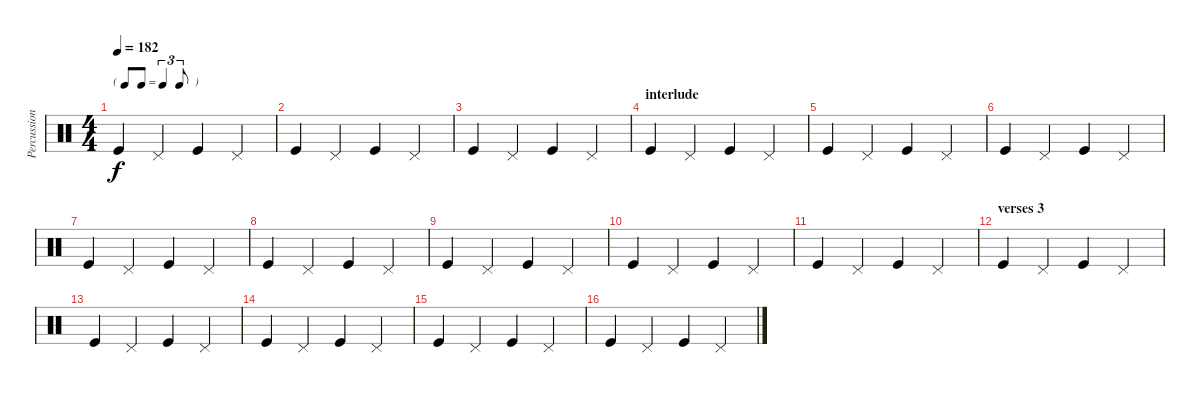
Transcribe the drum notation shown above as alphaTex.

\track ("Percussions" "Percussion") {instrument percussion}
\staff {score}
\articulation defaults
\ts (4 4)
\tf triplet8th
\tempo 182
\clef neutral
\ks c "Kick (hit)".4{dy f} "Pedal Hi-Hat (hit)".4 "Kick (hit)".4 "Pedal Hi-Hat (hit)".4
|
"Kick (hit)".4 "Pedal Hi-Hat (hit)".4 "Kick (hit)".4 "Pedal Hi-Hat (hit)".4 |
"Kick (hit)".4 "Pedal Hi-Hat (hit)".4 "Kick (hit)".4 "Pedal Hi-Hat (hit)".4 |
\section ("" "interlude")
"Kick (hit)".4 "Pedal Hi-Hat (hit)".4 "Kick (hit)".4 "Pedal Hi-Hat (hit)".4 |
"Kick (hit)".4 "Pedal Hi-Hat (hit)".4 "Kick (hit)".4 "Pedal Hi-Hat (hit)".4 |
"Kick (hit)".4 "Pedal Hi-Hat (hit)".4 "Kick (hit)".4 "Pedal Hi-Hat (hit)".4 |
"Kick (hit)".4 "Pedal Hi-Hat (hit)".4 "Kick (hit)".4 "Pedal Hi-Hat (hit)".4 |
"Kick (hit)".4 "Pedal Hi-Hat (hit)".4 "Kick (hit)".4 "Pedal Hi-Hat (hit)".4 |
"Kick (hit)".4 "Pedal Hi-Hat (hit)".4 "Kick (hit)".4 "Pedal Hi-Hat (hit)".4 |
"Kick (hit)".4 "Pedal Hi-Hat (hit)".4 "Kick (hit)".4 "Pedal Hi-Hat (hit)".4 |
"Kick (hit)".4 "Pedal Hi-Hat (hit)".4 "Kick (hit)".4 "Pedal Hi-Hat (hit)".4 |
\section ("" "verses 3")
"Kick (hit)".4 "Pedal Hi-Hat (hit)".4 "Kick (hit)".4 "Pedal Hi-Hat (hit)".4 |
"Kick (hit)".4 "Pedal Hi-Hat (hit)".4 "Kick (hit)".4 "Pedal Hi-Hat (hit)".4 |
"Kick (hit)".4 "Pedal Hi-Hat (hit)".4 "Kick (hit)".4 "Pedal Hi-Hat (hit)".4 |
"Kick (hit)".4 "Pedal Hi-Hat (hit)".4 "Kick (hit)".4 "Pedal Hi-Hat (hit)".4 |
"Kick (hit)".4 "Pedal Hi-Hat (hit)".4 "Kick (hit)".4 "Pedal Hi-Hat (hit)".4
